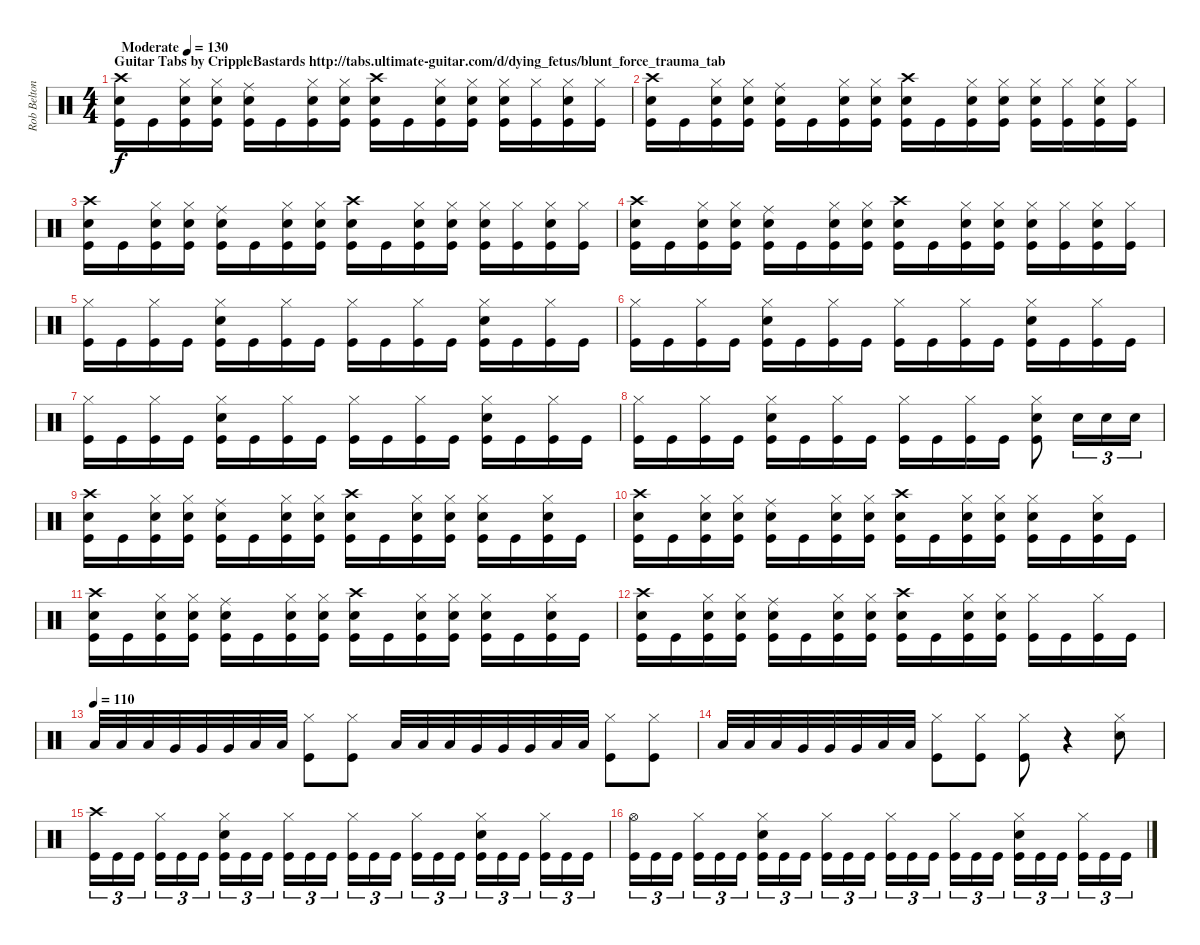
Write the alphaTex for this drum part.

\track ("Rob Belton" "Rob Belton") {instrument percussion}
\staff {score}
\articulation defaults
\ts (4 4)
\section ("" "Guitar Tabs by CrippleBastards http://tabs.ultimate-guitar.com/d/dying_fetus/blunt_force_trauma_tab")
\tempo (130 "Moderate")
\clef neutral
\ks c
("Crash high (hit)" "Snare (hit) 2" "Kick (hit)").16{dy f} "Kick (hit)".16 ("Hi-Hat (closed)" "Snare (hit) 2" "Kick (hit)").16 ("Hi-Hat (closed)" "Snare (hit) 2" "Kick (hit)").16 ("Ride (middle)" "Snare (hit) 2" "Kick (hit)").16 "Kick (hit)".16 ("Hi-Hat (closed)" "Snare (hit) 2" "Kick (hit)").16 ("Hi-Hat (closed)" "Snare (hit) 2" "Kick (hit)").16 ("Crash high (hit)" "Snare (hit) 2" "Kick (hit)").16 "Kick (hit)".16 ("Hi-Hat (closed)" "Snare (hit) 2" "Kick (hit)").16 ("Hi-Hat (closed)" "Snare (hit) 2" "Kick (hit)").16 ("Hi-Hat (closed)" "Snare (hit) 2" "Kick (hit)").16 ("Hi-Hat (closed)" "Kick (hit)").16 ("Hi-Hat (closed)" "Snare (hit) 2" "Kick (hit)").16 ("Hi-Hat (closed)" "Kick (hit)").16 |
("Crash high (hit)" "Snare (hit) 2" "Kick (hit)").16 "Kick (hit)".16 ("Hi-Hat (closed)" "Snare (hit) 2" "Kick (hit)").16 ("Hi-Hat (closed)" "Snare (hit) 2" "Kick (hit)").16 ("Ride (middle)" "Snare (hit) 2" "Kick (hit)").16 "Kick (hit)".16 ("Hi-Hat (closed)" "Snare (hit) 2" "Kick (hit)").16 ("Hi-Hat (closed)" "Snare (hit) 2" "Kick (hit)").16 ("Crash high (hit)" "Snare (hit) 2" "Kick (hit)").16 "Kick (hit)".16 ("Hi-Hat (closed)" "Snare (hit) 2" "Kick (hit)").16 ("Hi-Hat (closed)" "Snare (hit) 2" "Kick (hit)").16 ("Hi-Hat (closed)" "Snare (hit) 2" "Kick (hit)").16 ("Hi-Hat (closed)" "Kick (hit)").16 ("Hi-Hat (closed)" "Snare (hit) 2" "Kick (hit)").16 ("Hi-Hat (closed)" "Kick (hit)").16 |
("Crash high (hit)" "Snare (hit) 2" "Kick (hit)").16 "Kick (hit)".16 ("Hi-Hat (closed)" "Snare (hit) 2" "Kick (hit)").16 ("Hi-Hat (closed)" "Snare (hit) 2" "Kick (hit)").16 ("Ride (middle)" "Snare (hit) 2" "Kick (hit)").16 "Kick (hit)".16 ("Hi-Hat (closed)" "Snare (hit) 2" "Kick (hit)").16 ("Hi-Hat (closed)" "Snare (hit) 2" "Kick (hit)").16 ("Crash high (hit)" "Snare (hit) 2" "Kick (hit)").16 "Kick (hit)".16 ("Hi-Hat (closed)" "Snare (hit) 2" "Kick (hit)").16 ("Hi-Hat (closed)" "Snare (hit) 2" "Kick (hit)").16 ("Hi-Hat (closed)" "Snare (hit) 2" "Kick (hit)").16 ("Hi-Hat (closed)" "Kick (hit)").16 ("Hi-Hat (closed)" "Snare (hit) 2" "Kick (hit)").16 ("Hi-Hat (closed)" "Kick (hit)").16 |
("Crash high (hit)" "Snare (hit) 2" "Kick (hit)").16 "Kick (hit)".16 ("Hi-Hat (closed)" "Snare (hit) 2" "Kick (hit)").16 ("Hi-Hat (closed)" "Snare (hit) 2" "Kick (hit)").16 ("Ride (middle)" "Snare (hit) 2" "Kick (hit)").16 "Kick (hit)".16 ("Hi-Hat (closed)" "Snare (hit) 2" "Kick (hit)").16 ("Hi-Hat (closed)" "Snare (hit) 2" "Kick (hit)").16 ("Crash high (hit)" "Snare (hit) 2" "Kick (hit)").16 "Kick (hit)".16 ("Hi-Hat (closed)" "Snare (hit) 2" "Kick (hit)").16 ("Hi-Hat (closed)" "Snare (hit) 2" "Kick (hit)").16 ("Hi-Hat (closed)" "Snare (hit) 2" "Kick (hit)").16 ("Hi-Hat (closed)" "Kick (hit)").16 ("Hi-Hat (closed)" "Snare (hit) 2" "Kick (hit)").16 ("Hi-Hat (closed)" "Kick (hit)").16 |
("Hi-Hat (closed)" "Kick (hit)").16 "Kick (hit)".16 ("Hi-Hat (closed)" "Kick (hit)").16 "Kick (hit)".16 ("Hi-Hat (closed)" "Snare (hit) 2" "Kick (hit)").16 "Kick (hit)".16 ("Hi-Hat (closed)" "Kick (hit)").16 "Kick (hit)".16 ("Hi-Hat (closed)" "Kick (hit)").16 "Kick (hit)".16 ("Hi-Hat (closed)" "Kick (hit)").16 "Kick (hit)".16 ("Hi-Hat (closed)" "Snare (hit) 2" "Kick (hit)").16 "Kick (hit)".16 ("Hi-Hat (closed)" "Kick (hit)").16 "Kick (hit)".16 |
("Hi-Hat (closed)" "Kick (hit)").16 "Kick (hit)".16 ("Hi-Hat (closed)" "Kick (hit)").16 "Kick (hit)".16 ("Hi-Hat (closed)" "Snare (hit) 2" "Kick (hit)").16 "Kick (hit)".16 ("Hi-Hat (closed)" "Kick (hit)").16 "Kick (hit)".16 ("Hi-Hat (closed)" "Kick (hit)").16 "Kick (hit)".16 ("Hi-Hat (closed)" "Kick (hit)").16 "Kick (hit)".16 ("Hi-Hat (closed)" "Snare (hit) 2" "Kick (hit)").16 "Kick (hit)".16 ("Hi-Hat (closed)" "Kick (hit)").16 "Kick (hit)".16 |
("Hi-Hat (closed)" "Kick (hit)").16 "Kick (hit)".16 ("Hi-Hat (closed)" "Kick (hit)").16 "Kick (hit)".16 ("Hi-Hat (closed)" "Snare (hit) 2" "Kick (hit)").16 "Kick (hit)".16 ("Hi-Hat (closed)" "Kick (hit)").16 "Kick (hit)".16 ("Hi-Hat (closed)" "Kick (hit)").16 "Kick (hit)".16 ("Hi-Hat (closed)" "Kick (hit)").16 "Kick (hit)".16 ("Hi-Hat (closed)" "Snare (hit) 2" "Kick (hit)").16 "Kick (hit)".16 ("Hi-Hat (closed)" "Kick (hit)").16 "Kick (hit)".16 |
("Hi-Hat (closed)" "Kick (hit)").16 "Kick (hit)".16 ("Hi-Hat (closed)" "Kick (hit)").16 "Kick (hit)".16 ("Hi-Hat (closed)" "Snare (hit) 2" "Kick (hit)").16 "Kick (hit)".16 ("Hi-Hat (closed)" "Kick (hit)").16 "Kick (hit)".16 ("Hi-Hat (closed)" "Kick (hit)").16 "Kick (hit)".16 ("Hi-Hat (closed)" "Kick (hit)").16 "Kick (hit)".16 ("Hi-Hat (closed)" "Snare (hit) 2" "Kick (hit)").8 "Snare (hit) 2".16{tu (3 2)} "Snare (hit) 2".16{tu (3 2)} "Snare (hit) 2".16{tu (3 2)} |
("Crash high (hit)" "Snare (hit) 2" "Kick (hit)").16 "Kick (hit)".16 ("Hi-Hat (closed)" "Snare (hit) 2" "Kick (hit)").16 ("Hi-Hat (closed)" "Snare (hit) 2" "Kick (hit)").16 ("Ride (middle)" "Snare (hit) 2" "Kick (hit)").16 "Kick (hit)".16 ("Hi-Hat (closed)" "Snare (hit) 2" "Kick (hit)").16 ("Hi-Hat (closed)" "Snare (hit) 2" "Kick (hit)").16 ("Crash high (hit)" "Snare (hit) 2" "Kick (hit)").16 "Kick (hit)".16 ("Hi-Hat (closed)" "Snare (hit) 2" "Kick (hit)").16 ("Hi-Hat (closed)" "Snare (hit) 2" "Kick (hit)").16 ("Hi-Hat (closed)" "Snare (hit) 2" "Kick (hit)").16 "Kick (hit)".16 ("Hi-Hat (closed)" "Snare (hit) 2" "Kick (hit)").16 "Kick (hit)".16 |
("Crash high (hit)" "Snare (hit) 2" "Kick (hit)").16 "Kick (hit)".16 ("Hi-Hat (closed)" "Snare (hit) 2" "Kick (hit)").16 ("Hi-Hat (closed)" "Snare (hit) 2" "Kick (hit)").16 ("Ride (middle)" "Snare (hit) 2" "Kick (hit)").16 "Kick (hit)".16 ("Hi-Hat (closed)" "Snare (hit) 2" "Kick (hit)").16 ("Hi-Hat (closed)" "Snare (hit) 2" "Kick (hit)").16 ("Crash high (hit)" "Snare (hit) 2" "Kick (hit)").16 "Kick (hit)".16 ("Hi-Hat (closed)" "Snare (hit) 2" "Kick (hit)").16 ("Hi-Hat (closed)" "Snare (hit) 2" "Kick (hit)").16 ("Hi-Hat (closed)" "Snare (hit) 2" "Kick (hit)").16 "Kick (hit)".16 ("Hi-Hat (closed)" "Snare (hit) 2" "Kick (hit)").16 "Kick (hit)".16 |
("Crash high (hit)" "Snare (hit) 2" "Kick (hit)").16 "Kick (hit)".16 ("Hi-Hat (closed)" "Snare (hit) 2" "Kick (hit)").16 ("Hi-Hat (closed)" "Snare (hit) 2" "Kick (hit)").16 ("Ride (middle)" "Snare (hit) 2" "Kick (hit)").16 "Kick (hit)".16 ("Hi-Hat (closed)" "Snare (hit) 2" "Kick (hit)").16 ("Hi-Hat (closed)" "Snare (hit) 2" "Kick (hit)").16 ("Crash high (hit)" "Snare (hit) 2" "Kick (hit)").16 "Kick (hit)".16 ("Hi-Hat (closed)" "Snare (hit) 2" "Kick (hit)").16 ("Hi-Hat (closed)" "Snare (hit) 2" "Kick (hit)").16 ("Hi-Hat (closed)" "Snare (hit) 2" "Kick (hit)").16 "Kick (hit)".16 ("Hi-Hat (closed)" "Snare (hit) 2" "Kick (hit)").16 "Kick (hit)".16 |
("Crash high (hit)" "Snare (hit) 2" "Kick (hit)").16 "Kick (hit)".16 ("Hi-Hat (closed)" "Snare (hit) 2" "Kick (hit)").16 ("Hi-Hat (closed)" "Snare (hit) 2" "Kick (hit)").16 ("Ride (middle)" "Snare (hit) 2" "Kick (hit)").16 "Kick (hit)".16 ("Hi-Hat (closed)" "Snare (hit) 2" "Kick (hit)").16 ("Hi-Hat (closed)" "Snare (hit) 2" "Kick (hit)").16 ("Crash high (hit)" "Snare (hit) 2" "Kick (hit)").16 "Kick (hit)".16 ("Hi-Hat (closed)" "Snare (hit) 2" "Kick (hit)").16 ("Hi-Hat (closed)" "Snare (hit) 2" "Kick (hit)").16 ("Hi-Hat (closed)" "Kick (hit)").16 "Kick (hit)".16 ("Hi-Hat (closed)" "Kick (hit)").16 "Kick (hit)".16 |
\tempo (110)
"Low Tom (hit)".32 "Low Tom (hit)".32 "Low Tom (hit)".32 "Very Low Tom (hit)".32 "Very Low Tom (hit)".32 "Very Low Tom (hit)".32 "Low Floor Tom (hit)".32 "Low Floor Tom (hit)".32 ("Hi-Hat (closed)" "Kick (hit)").8 ("Hi-Hat (closed)" "Kick (hit)").8 "Low Tom (hit)".32 "Low Tom (hit)".32 "Low Tom (hit)".32 "Very Low Tom (hit)".32 "Very Low Tom (hit)".32 "Very Low Tom (hit)".32 "Low Floor Tom (hit)".32 "Low Floor Tom (hit)".32 ("Hi-Hat (closed)" "Kick (hit)").8 ("Hi-Hat (closed)" "Kick (hit)").8 |
"Low Tom (hit)".32 "Low Tom (hit)".32 "Low Tom (hit)".32 "Very Low Tom (hit)".32 "Very Low Tom (hit)".32 "Very Low Tom (hit)".32 "Low Floor Tom (hit)".32 "Low Floor Tom (hit)".32 ("Hi-Hat (closed)" "Kick (hit)").8 ("Hi-Hat (closed)" "Kick (hit)").8 ("Hi-Hat (closed)" "Kick (hit)").8 r.4 ("Hi-Hat (closed)" "Snare (hit) 2").8 |
("Crash high (hit)" "Kick (hit)").16{tu (3 2)} "Kick (hit)".16{tu (3 2)} "Kick (hit)".16{tu (3 2) beam splitsecondary} ("Hi-Hat (closed)" "Kick (hit)").16{tu (3 2)} "Kick (hit)".16{tu (3 2)} "Kick (hit)".16{tu (3 2)} ("Hi-Hat (closed)" "Snare (hit) 2" "Kick (hit)").16{tu (3 2)} "Kick (hit)".16{tu (3 2)} "Kick (hit)".16{tu (3 2) beam splitsecondary} ("Hi-Hat (closed)" "Kick (hit)").16{tu (3 2)} "Kick (hit)".16{tu (3 2)} "Kick (hit)".16{tu (3 2)} ("Hi-Hat (closed)" "Kick (hit)").16{tu (3 2)} "Kick (hit)".16{tu (3 2)} "Kick (hit)".16{tu (3 2) beam splitsecondary} ("Hi-Hat (closed)" "Kick (hit)").16{tu (3 2)} "Kick (hit)".16{tu (3 2)} "Kick (hit)".16{tu (3 2)} ("Hi-Hat (closed)" "Snare (hit) 2" "Kick (hit)").16{tu (3 2)} "Kick (hit)".16{tu (3 2)} "Kick (hit)".16{tu (3 2) beam splitsecondary} ("Hi-Hat (closed)" "Kick (hit)").16{tu (3 2)} "Kick (hit)".16{tu (3 2)} "Kick (hit)".16{tu (3 2)} |
("Hi-Hat (open)" "Kick (hit)").16{tu (3 2)} "Kick (hit)".16{tu (3 2)} "Kick (hit)".16{tu (3 2) beam splitsecondary} ("Hi-Hat (closed)" "Kick (hit)").16{tu (3 2)} "Kick (hit)".16{tu (3 2)} "Kick (hit)".16{tu (3 2)} ("Hi-Hat (closed)" "Snare (hit) 2" "Kick (hit)").16{tu (3 2)} "Kick (hit)".16{tu (3 2)} "Kick (hit)".16{tu (3 2) beam splitsecondary} ("Hi-Hat (closed)" "Kick (hit)").16{tu (3 2)} "Kick (hit)".16{tu (3 2)} "Kick (hit)".16{tu (3 2)} ("Hi-Hat (closed)" "Kick (hit)").16{tu (3 2)} "Kick (hit)".16{tu (3 2)} "Kick (hit)".16{tu (3 2) beam splitsecondary} ("Hi-Hat (closed)" "Kick (hit)").16{tu (3 2)} "Kick (hit)".16{tu (3 2)} "Kick (hit)".16{tu (3 2)} ("Hi-Hat (closed)" "Snare (hit) 2" "Kick (hit)").16{tu (3 2)} "Kick (hit)".16{tu (3 2)} "Kick (hit)".16{tu (3 2) beam splitsecondary} ("Hi-Hat (closed)" "Kick (hit)").16{tu (3 2)} "Kick (hit)".16{tu (3 2)} "Kick (hit)".16{tu (3 2)}
